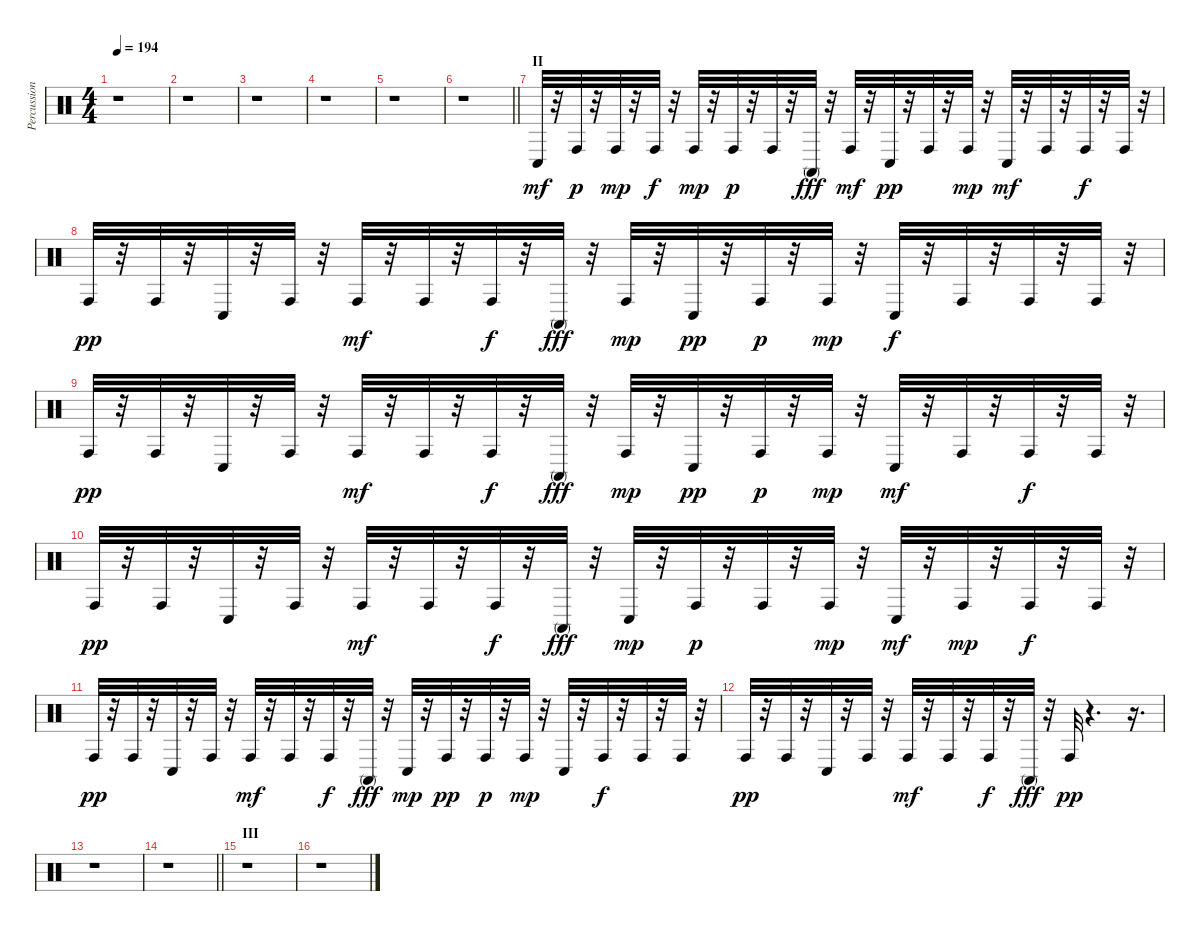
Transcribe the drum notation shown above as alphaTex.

\track ("Percussions" "Percussion") {instrument percussion}
\staff {score}
\articulation defaults
\ts (4 4)
\tempo 194
\clef neutral
\ks c
r.1{dy mf} |
r.1 |
r.1 |
r.1 |
r.1 |
\barLineRight lightlight
r.1 |
\section ("" "II")
"Conga low (hit)".32 r.32 "Conga high (hit)".32{dy p} r.32 "Conga high (hit)".32{dy mp} r.32 "Conga high (hit)".32{dy f} r.32 "Conga high (hit)".32{dy mp} r.32 "Conga high (hit)".32{dy p} r.32 "Conga high (hit)".32 r.32 "Conga high (mute)".32{dy fff} r.32 "Conga high (hit)".32{dy mf} r.32 "Conga low (hit)".32{dy pp} r.32 "Conga high (hit)".32 r.32 "Conga high (hit)".32{dy mp} r.32 "Conga low (hit)".32{dy mf} r.32 "Conga high (hit)".32 r.32 "Conga high (hit)".32{dy f} r.32 "Conga high (hit)".32 r.32 |
"Conga high (hit)".32{dy pp} r.32 "Conga high (hit)".32 r.32 "Conga low (hit)".32 r.32 "Conga high (hit)".32 r.32 "Conga high (hit)".32{dy mf} r.32 "Conga high (hit)".32 r.32 "Conga high (hit)".32{dy f} r.32 "Conga high (mute)".32{dy fff} r.32 "Conga high (hit)".32{dy mp} r.32 "Conga low (hit)".32{dy pp} r.32 "Conga high (hit)".32{dy p} r.32 "Conga high (hit)".32{dy mp} r.32 "Conga low (hit)".32{dy f} r.32 "Conga high (hit)".32 r.32 "Conga high (hit)".32 r.32 "Conga high (hit)".32 r.32 |
"Conga high (hit)".32{dy pp} r.32 "Conga high (hit)".32 r.32 "Conga low (hit)".32 r.32 "Conga high (hit)".32 r.32 "Conga high (hit)".32{dy mf} r.32 "Conga high (hit)".32 r.32 "Conga high (hit)".32{dy f} r.32 "Conga high (mute)".32{dy fff} r.32 "Conga high (hit)".32{dy mp} r.32 "Conga low (hit)".32{dy pp} r.32 "Conga high (hit)".32{dy p} r.32 "Conga high (hit)".32{dy mp} r.32 "Conga low (hit)".32{dy mf} r.32 "Conga high (hit)".32 r.32 "Conga high (hit)".32{dy f} r.32 "Conga high (hit)".32 r.32 |
"Conga high (hit)".32{dy pp} r.32 "Conga high (hit)".32 r.32 "Conga low (hit)".32 r.32 "Conga high (hit)".32 r.32 "Conga high (hit)".32{dy mf} r.32 "Conga high (hit)".32 r.32 "Conga high (hit)".32{dy f} r.32 "Conga high (mute)".32{dy fff} r.32 "Conga low (hit)".32{dy mp} r.32 "Conga high (hit)".32{dy p} r.32 "Conga high (hit)".32 r.32 "Conga high (hit)".32{dy mp} r.32 "Conga low (hit)".32{dy mf} r.32 "Conga high (hit)".32{dy mp} r.32 "Conga high (hit)".32{dy f} r.32 "Conga high (hit)".32 r.32 |
"Conga high (hit)".32{dy pp} r.32 "Conga high (hit)".32 r.32 "Conga low (hit)".32 r.32 "Conga high (hit)".32 r.32 "Conga high (hit)".32{dy mf} r.32 "Conga high (hit)".32 r.32 "Conga high (hit)".32{dy f} r.32 "Conga high (mute)".32{dy fff} r.32 "Conga low (hit)".32{dy mp} r.32 "Conga high (hit)".32{dy pp} r.32 "Conga high (hit)".32{dy p} r.32 "Conga high (hit)".32{dy mp} r.32 "Conga low (hit)".32 r.32 "Conga high (hit)".32{dy f} r.32 "Conga high (hit)".32 r.32 "Conga high (hit)".32 r.32 |
"Conga high (hit)".32{dy pp} r.32 "Conga high (hit)".32 r.32 "Conga low (hit)".32 r.32 "Conga high (hit)".32 r.32 "Conga high (hit)".32{dy mf} r.32 "Conga high (hit)".32 r.32 "Conga high (hit)".32{dy f} r.32 "Conga high (mute)".32{dy fff} r.32 "Conga high (hit)".32{dy pp} r.4{d} r.16{d} |
r.1 |
\barLineRight lightlight
r.1 |
\section ("" "III")
r.1 |
r.1
